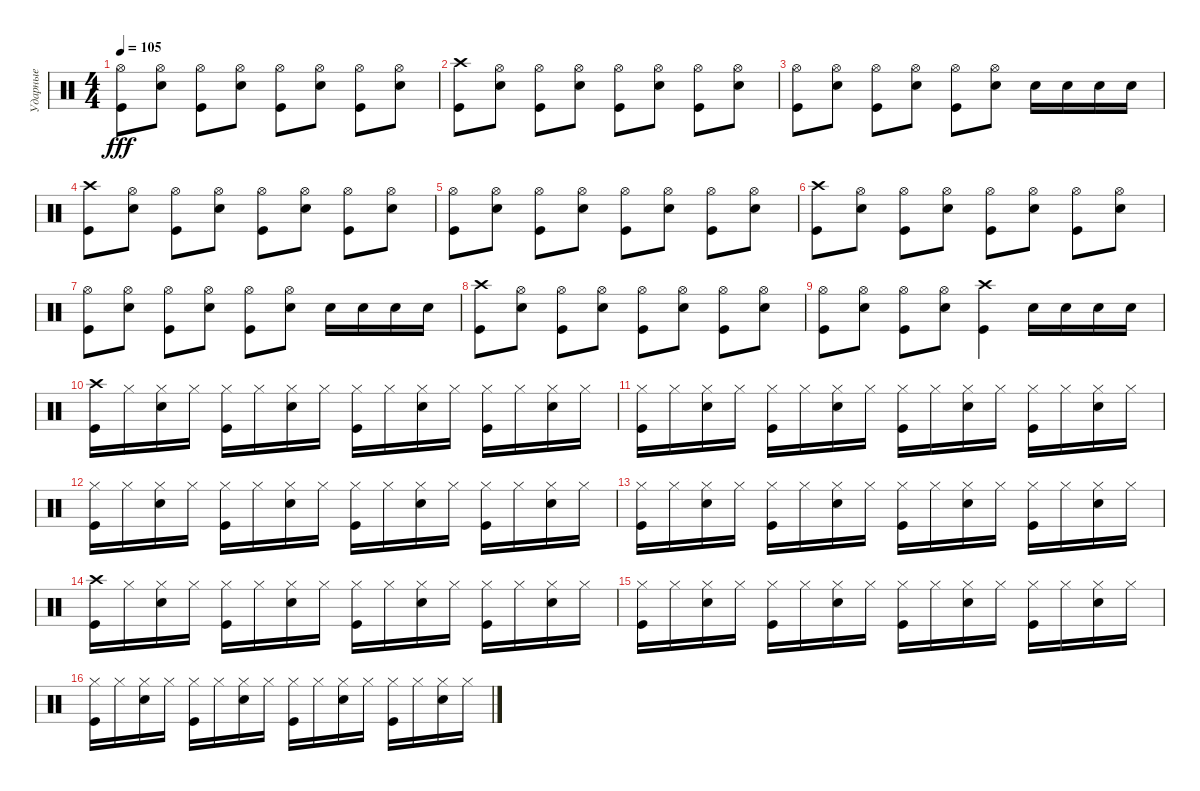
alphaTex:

\track ("Ударные" "Ударные") {instrument percussion}
\staff {score}
\articulation defaults
\ts (4 4)
\tempo 105
\clef neutral
\ks c
("Hi-Hat (open)" "Kick (hit)").8{dy fff} ("Electric Snare (hit)" "Hi-Hat (open)").8 ("Hi-Hat (open)" "Kick (hit)").8 ("Hi-Hat (open)" "Electric Snare (hit)").8 ("Kick (hit)" "Hi-Hat (open)").8 ("Electric Snare (hit)" "Hi-Hat (open)").8 ("Kick (hit)" "Hi-Hat (open)").8 ("Electric Snare (hit)" "Hi-Hat (open)").8 |
("Crash high (hit)" "Kick (hit)").8 ("Electric Snare (hit)" "Hi-Hat (open)").8 ("Hi-Hat (open)" "Kick (hit)").8 ("Hi-Hat (open)" "Electric Snare (hit)").8 ("Kick (hit)" "Hi-Hat (open)").8 ("Electric Snare (hit)" "Hi-Hat (open)").8 ("Kick (hit)" "Hi-Hat (open)").8 ("Electric Snare (hit)" "Hi-Hat (open)").8 |
("Hi-Hat (open)" "Kick (hit)").8 ("Electric Snare (hit)" "Hi-Hat (open)").8 ("Hi-Hat (open)" "Kick (hit)").8 ("Hi-Hat (open)" "Electric Snare (hit)").8 ("Kick (hit)" "Hi-Hat (open)").8 ("Electric Snare (hit)" "Hi-Hat (open)").8 "Electric Snare (hit)".16 "Electric Snare (hit)".16 "Electric Snare (hit)".16 "Electric Snare (hit)".16 |
("Crash high (hit)" "Kick (hit)").8 ("Electric Snare (hit)" "Hi-Hat (open)").8 ("Hi-Hat (open)" "Kick (hit)").8 ("Hi-Hat (open)" "Electric Snare (hit)").8 ("Kick (hit)" "Hi-Hat (open)").8 ("Electric Snare (hit)" "Hi-Hat (open)").8 ("Kick (hit)" "Hi-Hat (open)").8 ("Electric Snare (hit)" "Hi-Hat (open)").8 |
("Hi-Hat (open)" "Kick (hit)").8 ("Electric Snare (hit)" "Hi-Hat (open)").8 ("Hi-Hat (open)" "Kick (hit)").8 ("Hi-Hat (open)" "Electric Snare (hit)").8 ("Kick (hit)" "Hi-Hat (open)").8 ("Electric Snare (hit)" "Hi-Hat (open)").8 ("Kick (hit)" "Hi-Hat (open)").8 ("Electric Snare (hit)" "Hi-Hat (open)").8 |
("Crash high (hit)" "Kick (hit)").8 ("Electric Snare (hit)" "Hi-Hat (open)").8 ("Hi-Hat (open)" "Kick (hit)").8 ("Hi-Hat (open)" "Electric Snare (hit)").8 ("Kick (hit)" "Hi-Hat (open)").8 ("Electric Snare (hit)" "Hi-Hat (open)").8 ("Kick (hit)" "Hi-Hat (open)").8 ("Electric Snare (hit)" "Hi-Hat (open)").8 |
("Hi-Hat (open)" "Kick (hit)").8 ("Electric Snare (hit)" "Hi-Hat (open)").8 ("Hi-Hat (open)" "Kick (hit)").8 ("Hi-Hat (open)" "Electric Snare (hit)").8 ("Kick (hit)" "Hi-Hat (open)").8 ("Electric Snare (hit)" "Hi-Hat (open)").8 "Electric Snare (hit)".16 "Electric Snare (hit)".16 "Electric Snare (hit)".16 "Electric Snare (hit)".16 |
("Crash high (hit)" "Kick (hit)").8 ("Electric Snare (hit)" "Hi-Hat (open)").8 ("Hi-Hat (open)" "Kick (hit)").8 ("Hi-Hat (open)" "Electric Snare (hit)").8 ("Kick (hit)" "Hi-Hat (open)").8 ("Electric Snare (hit)" "Hi-Hat (open)").8 ("Kick (hit)" "Hi-Hat (open)").8 ("Electric Snare (hit)" "Hi-Hat (open)").8 |
("Hi-Hat (open)" "Kick (hit)").8 ("Electric Snare (hit)" "Hi-Hat (open)").8 ("Hi-Hat (open)" "Kick (hit)").8 ("Hi-Hat (open)" "Electric Snare (hit)").8 ("Kick (hit)" "Crash high (hit)").4 "Electric Snare (hit)".16 "Electric Snare (hit)".16 "Electric Snare (hit)".16 "Electric Snare (hit)".16 |
("Kick (hit)" "Crash high (hit)").16 "Hi-Hat (closed)".16 ("Hi-Hat (closed)" "Electric Snare (hit)").16 "Hi-Hat (closed)".16 ("Hi-Hat (closed)" "Kick (hit)").16 "Hi-Hat (closed)".16 ("Hi-Hat (closed)" "Electric Snare (hit)").16 "Hi-Hat (closed)".16 ("Hi-Hat (closed)" "Kick (hit)").16 "Hi-Hat (closed)".16 ("Hi-Hat (closed)" "Electric Snare (hit)").16 "Hi-Hat (closed)".16 ("Hi-Hat (closed)" "Kick (hit)").16 "Hi-Hat (closed)".16 ("Hi-Hat (closed)" "Electric Snare (hit)").16 "Hi-Hat (closed)".16 |
("Kick (hit)" "Hi-Hat (closed)").16 "Hi-Hat (closed)".16 ("Hi-Hat (closed)" "Electric Snare (hit)").16 "Hi-Hat (closed)".16 ("Hi-Hat (closed)" "Kick (hit)").16 "Hi-Hat (closed)".16 ("Hi-Hat (closed)" "Electric Snare (hit)").16 "Hi-Hat (closed)".16 ("Hi-Hat (closed)" "Kick (hit)").16 "Hi-Hat (closed)".16 ("Hi-Hat (closed)" "Electric Snare (hit)").16 "Hi-Hat (closed)".16 ("Hi-Hat (closed)" "Kick (hit)").16 "Hi-Hat (closed)".16 ("Hi-Hat (closed)" "Electric Snare (hit)").16 "Hi-Hat (closed)".16 |
("Kick (hit)" "Hi-Hat (closed)").16 "Hi-Hat (closed)".16 ("Hi-Hat (closed)" "Electric Snare (hit)").16 "Hi-Hat (closed)".16 ("Hi-Hat (closed)" "Kick (hit)").16 "Hi-Hat (closed)".16 ("Hi-Hat (closed)" "Electric Snare (hit)").16 "Hi-Hat (closed)".16 ("Hi-Hat (closed)" "Kick (hit)").16 "Hi-Hat (closed)".16 ("Hi-Hat (closed)" "Electric Snare (hit)").16 "Hi-Hat (closed)".16 ("Hi-Hat (closed)" "Kick (hit)").16 "Hi-Hat (closed)".16 ("Hi-Hat (closed)" "Electric Snare (hit)").16 "Hi-Hat (closed)".16 |
("Kick (hit)" "Hi-Hat (closed)").16 "Hi-Hat (closed)".16 ("Hi-Hat (closed)" "Electric Snare (hit)").16 "Hi-Hat (closed)".16 ("Hi-Hat (closed)" "Kick (hit)").16 "Hi-Hat (closed)".16 ("Hi-Hat (closed)" "Electric Snare (hit)").16 "Hi-Hat (closed)".16 ("Hi-Hat (closed)" "Kick (hit)").16 "Hi-Hat (closed)".16 ("Hi-Hat (closed)" "Electric Snare (hit)").16 "Hi-Hat (closed)".16 ("Hi-Hat (closed)" "Kick (hit)").16 "Hi-Hat (closed)".16 ("Hi-Hat (closed)" "Electric Snare (hit)").16 "Hi-Hat (closed)".16 |
("Kick (hit)" "Crash high (hit)").16 "Hi-Hat (closed)".16 ("Hi-Hat (closed)" "Electric Snare (hit)").16 "Hi-Hat (closed)".16 ("Hi-Hat (closed)" "Kick (hit)").16 "Hi-Hat (closed)".16 ("Hi-Hat (closed)" "Electric Snare (hit)").16 "Hi-Hat (closed)".16 ("Hi-Hat (closed)" "Kick (hit)").16 "Hi-Hat (closed)".16 ("Hi-Hat (closed)" "Electric Snare (hit)").16 "Hi-Hat (closed)".16 ("Hi-Hat (closed)" "Kick (hit)").16 "Hi-Hat (closed)".16 ("Hi-Hat (closed)" "Electric Snare (hit)").16 "Hi-Hat (closed)".16 |
("Kick (hit)" "Hi-Hat (closed)").16 "Hi-Hat (closed)".16 ("Hi-Hat (closed)" "Electric Snare (hit)").16 "Hi-Hat (closed)".16 ("Hi-Hat (closed)" "Kick (hit)").16 "Hi-Hat (closed)".16 ("Hi-Hat (closed)" "Electric Snare (hit)").16 "Hi-Hat (closed)".16 ("Hi-Hat (closed)" "Kick (hit)").16 "Hi-Hat (closed)".16 ("Hi-Hat (closed)" "Electric Snare (hit)").16 "Hi-Hat (closed)".16 ("Hi-Hat (closed)" "Kick (hit)").16 "Hi-Hat (closed)".16 ("Hi-Hat (closed)" "Electric Snare (hit)").16 "Hi-Hat (closed)".16 |
("Kick (hit)" "Hi-Hat (closed)").16 "Hi-Hat (closed)".16 ("Hi-Hat (closed)" "Electric Snare (hit)").16 "Hi-Hat (closed)".16 ("Hi-Hat (closed)" "Kick (hit)").16 "Hi-Hat (closed)".16 ("Hi-Hat (closed)" "Electric Snare (hit)").16 "Hi-Hat (closed)".16 ("Hi-Hat (closed)" "Kick (hit)").16 "Hi-Hat (closed)".16 ("Hi-Hat (closed)" "Electric Snare (hit)").16 "Hi-Hat (closed)".16 ("Hi-Hat (closed)" "Kick (hit)").16 "Hi-Hat (closed)".16 ("Hi-Hat (closed)" "Electric Snare (hit)").16 "Hi-Hat (closed)".16
